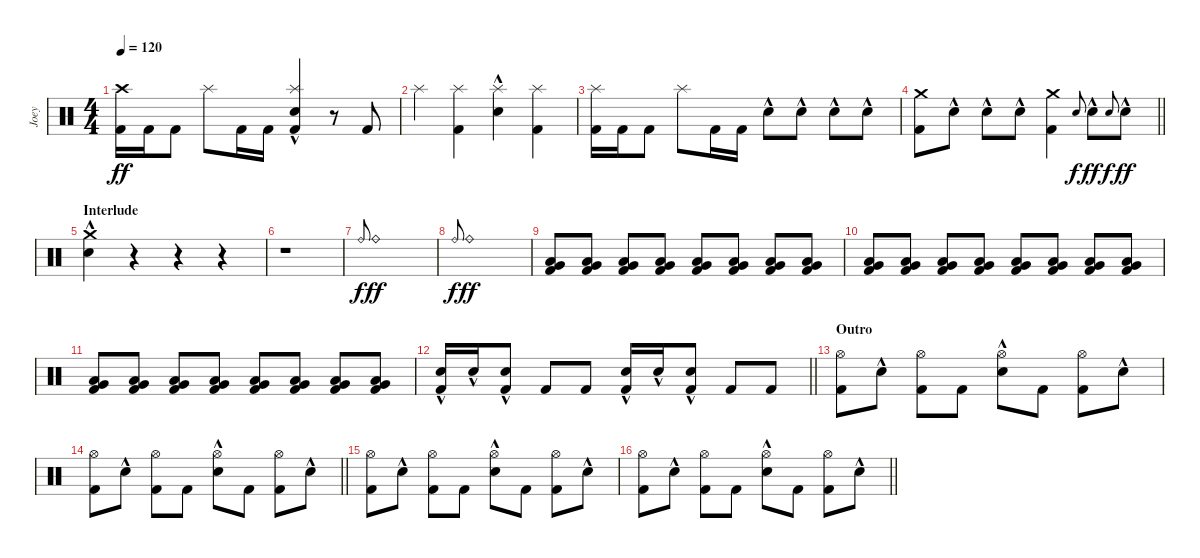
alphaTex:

\track ("Joey" "Joey") {instrument percussion}
\staff {score}
\articulation defaults
\ts (4 4)
\tempo 120
\clef neutral
\ks c
("Crash high (hit)" "Kick (hit) 2").16{dy ff} "Kick (hit) 2".16 "Kick (hit) 2".8 "Splash (hit)".8 "Kick (hit) 2".16 "Kick (hit) 2".16 ("Splash (hit)" "Snare (hit) 2"{hac} "Kick (hit) 2").4 r.8 "Kick (hit) 2".8 |
"Splash (hit)".4 ("Splash (hit)" "Kick (hit) 2").4 ("Splash (hit)" "Snare (hit) 2"{hac}).4 ("Splash (hit)" "Kick (hit) 2").4 |
("Splash (hit)" "Kick (hit) 2").16 "Kick (hit) 2".16 "Kick (hit) 2".8 "Splash (hit)".8 "Kick (hit) 2".16 "Kick (hit) 2".16 "Snare (hit) 2"{hac}.8 "Snare (hit) 2"{hac}.8 "Snare (hit) 2"{hac}.8 "Snare (hit) 2"{hac}.8 |
\barLineRight lightlight
("Crash medium (hit)" "Kick (hit) 2").8 "Snare (hit) 2"{hac}.8 "Snare (hit) 2"{hac}.8 "Snare (hit) 2"{hac}.8 ("Crash medium (hit)" "Kick (hit) 2").4 "Snare (hit) 2".8{gr onbeat dy f} "Snare (hit) 2"{hac}.8{dy ff} "Snare (hit) 2".8{gr onbeat dy f} "Snare (hit) 2"{hac}.8{dy ff} |
\section ("" "Interlude")
("Crash medium (hit)" "Snare (hit) 2"{hac}).4 r.4 r.4 r.4 |
r.1 |
"Ride (bell)".8{gr onbeat dy f} "Ride (bell)".1{dy ff} |
"Ride (bell)".8{gr onbeat dy f} "Ride (bell)".1{dy ff} |
("Very Low Tom (hit)" "Low Floor Tom (hit)" "Kick (hit) 2").8 ("Very Low Tom (hit)" "Low Floor Tom (hit)" "Kick (hit) 2").8 ("Very Low Tom (hit)" "Low Floor Tom (hit)" "Kick (hit) 2").8 ("Very Low Tom (hit)" "Low Floor Tom (hit)" "Kick (hit) 2").8 ("Very Low Tom (hit)" "Low Floor Tom (hit)" "Kick (hit) 2").8 ("Very Low Tom (hit)" "Low Floor Tom (hit)" "Kick (hit) 2").8 ("Very Low Tom (hit)" "Low Floor Tom (hit)" "Kick (hit) 2").8 ("Very Low Tom (hit)" "Low Floor Tom (hit)" "Kick (hit) 2").8 |
("Very Low Tom (hit)" "Low Floor Tom (hit)" "Kick (hit) 2").8 ("Very Low Tom (hit)" "Low Floor Tom (hit)" "Kick (hit) 2").8 ("Very Low Tom (hit)" "Low Floor Tom (hit)" "Kick (hit) 2").8 ("Very Low Tom (hit)" "Low Floor Tom (hit)" "Kick (hit) 2").8 ("Very Low Tom (hit)" "Low Floor Tom (hit)" "Kick (hit) 2").8 ("Very Low Tom (hit)" "Low Floor Tom (hit)" "Kick (hit) 2").8 ("Very Low Tom (hit)" "Low Floor Tom (hit)" "Kick (hit) 2").8 ("Very Low Tom (hit)" "Low Floor Tom (hit)" "Kick (hit) 2").8 |
("Very Low Tom (hit)" "Low Floor Tom (hit)" "Kick (hit) 2").8 ("Very Low Tom (hit)" "Low Floor Tom (hit)" "Kick (hit) 2").8 ("Very Low Tom (hit)" "Low Floor Tom (hit)" "Kick (hit) 2").8 ("Very Low Tom (hit)" "Low Floor Tom (hit)" "Kick (hit) 2").8 ("Very Low Tom (hit)" "Low Floor Tom (hit)" "Kick (hit) 2").8 ("Very Low Tom (hit)" "Low Floor Tom (hit)" "Kick (hit) 2").8 ("Very Low Tom (hit)" "Low Floor Tom (hit)" "Kick (hit) 2").8 ("Very Low Tom (hit)" "Low Floor Tom (hit)" "Kick (hit) 2").8 |
\barLineRight lightlight
("Snare (hit) 2"{hac} "Kick (hit) 2").16 "Snare (hit) 2"{hac}.16 ("Snare (hit) 2"{hac} "Kick (hit) 2").8 "Kick (hit) 2".8 "Kick (hit) 2".8 ("Snare (hit) 2"{hac} "Kick (hit) 2").16 "Snare (hit) 2"{hac}.16 ("Snare (hit) 2"{hac} "Kick (hit) 2").8 "Kick (hit) 2".8 "Kick (hit) 2".8 |
\section ("" "Outro")
("Hi-Hat (open)" "Kick (hit) 2").8 "Snare (hit) 2"{hac}.8 ("Hi-Hat (open)" "Kick (hit) 2").8 "Kick (hit) 2".8 ("Hi-Hat (open)" "Snare (hit) 2"{hac}).8 "Kick (hit) 2".8 ("Hi-Hat (open)" "Kick (hit) 2").8 "Snare (hit) 2"{hac}.8 |
\barLineRight lightlight
("Hi-Hat (open)" "Kick (hit) 2").8 "Snare (hit) 2"{hac}.8 ("Hi-Hat (open)" "Kick (hit) 2").8 "Kick (hit) 2".8 ("Hi-Hat (open)" "Snare (hit) 2"{hac}).8 "Kick (hit) 2".8 ("Hi-Hat (open)" "Kick (hit) 2").8 "Snare (hit) 2"{hac}.8 |
("Hi-Hat (open)" "Kick (hit) 2").8 "Snare (hit) 2"{hac}.8 ("Hi-Hat (open)" "Kick (hit) 2").8 "Kick (hit) 2".8 ("Hi-Hat (open)" "Snare (hit) 2"{hac}).8 "Kick (hit) 2".8 ("Hi-Hat (open)" "Kick (hit) 2").8 "Snare (hit) 2"{hac}.8 |
\barLineRight lightlight
("Hi-Hat (open)" "Kick (hit) 2").8 "Snare (hit) 2"{hac}.8 ("Hi-Hat (open)" "Kick (hit) 2").8 "Kick (hit) 2".8 ("Hi-Hat (open)" "Snare (hit) 2"{hac}).8 "Kick (hit) 2".8 ("Hi-Hat (open)" "Kick (hit) 2").8 "Snare (hit) 2"{hac}.8
